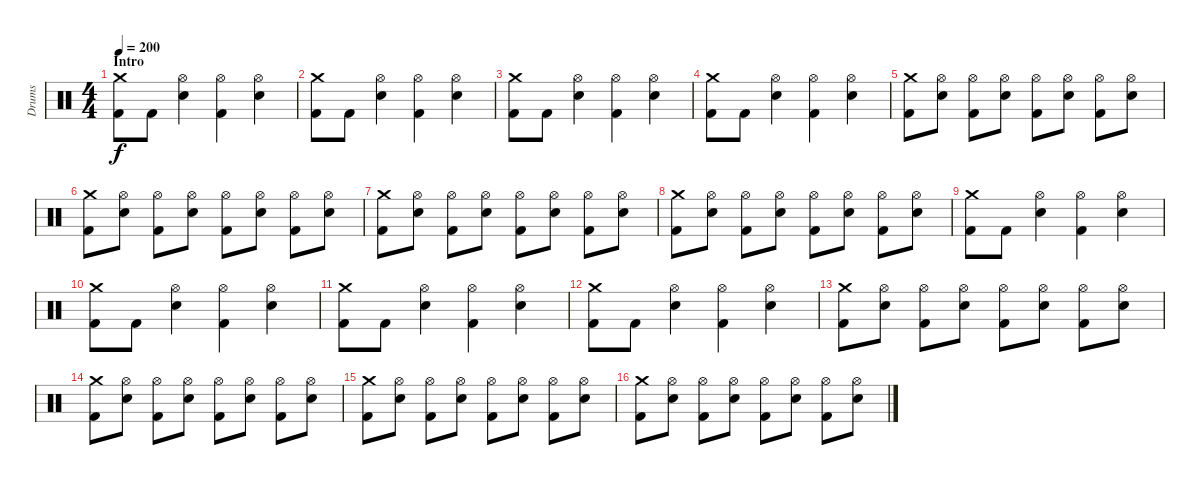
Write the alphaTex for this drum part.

\track ("Drums" "Drums") {instrument percussion}
\staff {score}
\articulation defaults
\ts (4 4)
\section ("" "Intro")
\tempo 200
\clef neutral
\ks c
("Crash medium (hit)" "Kick (hit) 2").8{dy f} "Kick (hit) 2".8 ("Hi-Hat (open)" "Snare (hit) 2").4 ("Hi-Hat (open)" "Kick (hit) 2").4 ("Hi-Hat (open)" "Snare (hit) 2").4 |
("Crash medium (hit)" "Kick (hit) 2").8 "Kick (hit) 2".8 ("Hi-Hat (open)" "Snare (hit) 2").4 ("Hi-Hat (open)" "Kick (hit) 2").4 ("Hi-Hat (open)" "Snare (hit) 2").4 |
("Crash medium (hit)" "Kick (hit) 2").8 "Kick (hit) 2".8 ("Hi-Hat (open)" "Snare (hit) 2").4 ("Hi-Hat (open)" "Kick (hit) 2").4 ("Hi-Hat (open)" "Snare (hit) 2").4 |
("Crash medium (hit)" "Kick (hit) 2").8 "Kick (hit) 2".8 ("Hi-Hat (open)" "Snare (hit) 2").4 ("Hi-Hat (open)" "Kick (hit) 2").4 ("Hi-Hat (open)" "Snare (hit) 2").4 |
("Crash medium (hit)" "Kick (hit) 2").8 ("Hi-Hat (open)" "Snare (hit) 2").8 ("Hi-Hat (open)" "Kick (hit) 2").8 ("Hi-Hat (open)" "Snare (hit) 2").8 ("Hi-Hat (open)" "Kick (hit) 2").8 ("Hi-Hat (open)" "Snare (hit) 2").8 ("Hi-Hat (open)" "Kick (hit) 2").8 ("Hi-Hat (open)" "Snare (hit) 2").8 |
("Crash medium (hit)" "Kick (hit) 2").8 ("Hi-Hat (open)" "Snare (hit) 2").8 ("Hi-Hat (open)" "Kick (hit) 2").8 ("Hi-Hat (open)" "Snare (hit) 2").8 ("Hi-Hat (open)" "Kick (hit) 2").8 ("Hi-Hat (open)" "Snare (hit) 2").8 ("Hi-Hat (open)" "Kick (hit) 2").8 ("Hi-Hat (open)" "Snare (hit) 2").8 |
("Crash medium (hit)" "Kick (hit) 2").8 ("Hi-Hat (open)" "Snare (hit) 2").8 ("Hi-Hat (open)" "Kick (hit) 2").8 ("Hi-Hat (open)" "Snare (hit) 2").8 ("Hi-Hat (open)" "Kick (hit) 2").8 ("Hi-Hat (open)" "Snare (hit) 2").8 ("Hi-Hat (open)" "Kick (hit) 2").8 ("Hi-Hat (open)" "Snare (hit) 2").8 |
("Crash medium (hit)" "Kick (hit) 2").8 ("Hi-Hat (open)" "Snare (hit) 2").8 ("Hi-Hat (open)" "Kick (hit) 2").8 ("Hi-Hat (open)" "Snare (hit) 2").8 ("Hi-Hat (open)" "Kick (hit) 2").8 ("Hi-Hat (open)" "Snare (hit) 2").8 ("Hi-Hat (open)" "Kick (hit) 2").8 ("Hi-Hat (open)" "Snare (hit) 2").8 |
("Crash medium (hit)" "Kick (hit) 2").8 "Kick (hit) 2".8 ("Hi-Hat (open)" "Snare (hit) 2").4 ("Hi-Hat (open)" "Kick (hit) 2").4 ("Hi-Hat (open)" "Snare (hit) 2").4 |
("Crash medium (hit)" "Kick (hit) 2").8 "Kick (hit) 2".8 ("Hi-Hat (open)" "Snare (hit) 2").4 ("Hi-Hat (open)" "Kick (hit) 2").4 ("Hi-Hat (open)" "Snare (hit) 2").4 |
("Crash medium (hit)" "Kick (hit) 2").8 "Kick (hit) 2".8 ("Hi-Hat (open)" "Snare (hit) 2").4 ("Hi-Hat (open)" "Kick (hit) 2").4 ("Hi-Hat (open)" "Snare (hit) 2").4 |
("Crash medium (hit)" "Kick (hit) 2").8 "Kick (hit) 2".8 ("Hi-Hat (open)" "Snare (hit) 2").4 ("Hi-Hat (open)" "Kick (hit) 2").4 ("Hi-Hat (open)" "Snare (hit) 2").4 |
("Crash medium (hit)" "Kick (hit) 2").8 ("Hi-Hat (open)" "Snare (hit) 2").8 ("Hi-Hat (open)" "Kick (hit) 2").8 ("Hi-Hat (open)" "Snare (hit) 2").8 ("Hi-Hat (open)" "Kick (hit) 2").8 ("Hi-Hat (open)" "Snare (hit) 2").8 ("Hi-Hat (open)" "Kick (hit) 2").8 ("Hi-Hat (open)" "Snare (hit) 2").8 |
("Crash medium (hit)" "Kick (hit) 2").8 ("Hi-Hat (open)" "Snare (hit) 2").8 ("Hi-Hat (open)" "Kick (hit) 2").8 ("Hi-Hat (open)" "Snare (hit) 2").8 ("Hi-Hat (open)" "Kick (hit) 2").8 ("Hi-Hat (open)" "Snare (hit) 2").8 ("Hi-Hat (open)" "Kick (hit) 2").8 ("Hi-Hat (open)" "Snare (hit) 2").8 |
("Crash medium (hit)" "Kick (hit) 2").8 ("Hi-Hat (open)" "Snare (hit) 2").8 ("Hi-Hat (open)" "Kick (hit) 2").8 ("Hi-Hat (open)" "Snare (hit) 2").8 ("Hi-Hat (open)" "Kick (hit) 2").8 ("Hi-Hat (open)" "Snare (hit) 2").8 ("Hi-Hat (open)" "Kick (hit) 2").8 ("Hi-Hat (open)" "Snare (hit) 2").8 |
("Crash medium (hit)" "Kick (hit) 2").8 ("Hi-Hat (open)" "Snare (hit) 2").8 ("Hi-Hat (open)" "Kick (hit) 2").8 ("Hi-Hat (open)" "Snare (hit) 2").8 ("Hi-Hat (open)" "Kick (hit) 2").8 ("Hi-Hat (open)" "Snare (hit) 2").8 ("Hi-Hat (open)" "Kick (hit) 2").8 ("Hi-Hat (open)" "Snare (hit) 2").8
